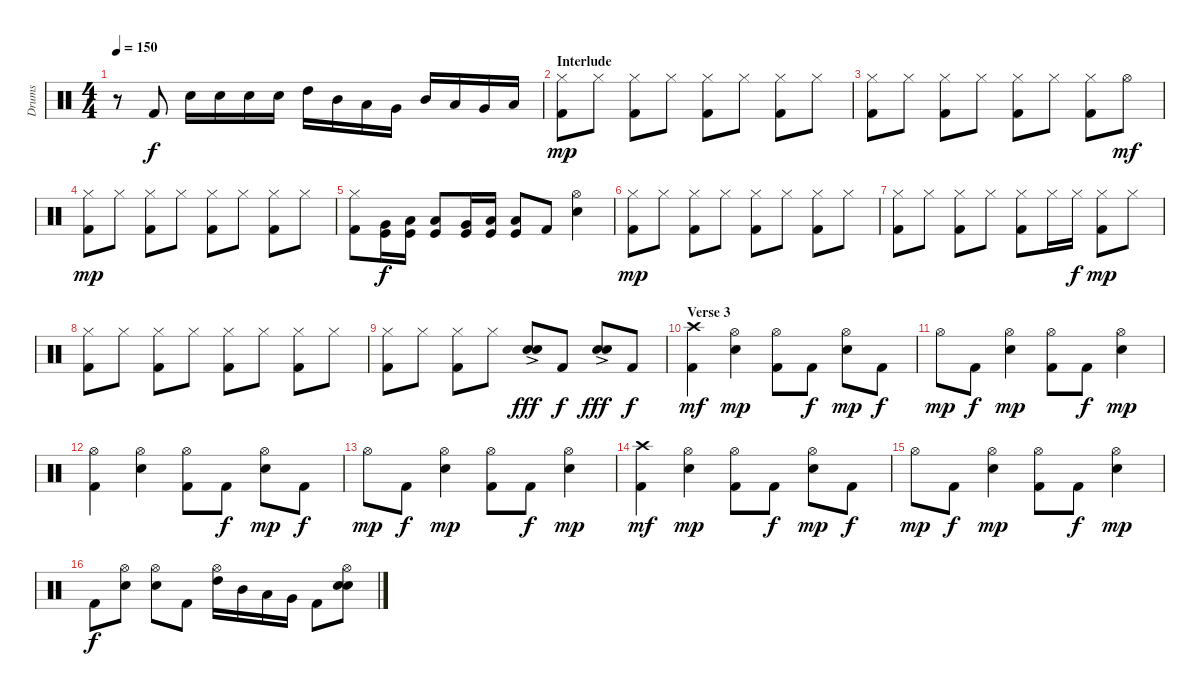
\track ("Drums" "Drums") {instrument percussion}
\staff {score}
\articulation defaults
\ts (4 4)
\tempo 150
\clef neutral
\ks c
r.8{dy f} "Kick (hit) 2".8 "Snare (hit) 2".16 "Snare (hit) 2".16 "Snare (hit) 2".16 "Snare (hit) 2".16 "High Tom (hit)".16 "Mid Tom (hit)".16 "Low Tom (hit)".16 "Very Low Tom (hit)".16 "Mid Tom (hit)".16 "Low Tom (hit)".16 "Very Low Tom (hit)".16 "Low Floor Tom (hit)".16 |
\section ("" "Interlude")
("Hi-Hat (closed)" "Kick (hit) 2").8{dy mp} "Hi-Hat (closed)".8 ("Hi-Hat (closed)" "Kick (hit) 2").8 "Hi-Hat (closed)".8 ("Hi-Hat (closed)" "Kick (hit) 2").8 "Hi-Hat (closed)".8 ("Hi-Hat (closed)" "Kick (hit) 2").8 "Hi-Hat (closed)".8 |
("Hi-Hat (closed)" "Kick (hit) 2").8 "Hi-Hat (closed)".8 ("Hi-Hat (closed)" "Kick (hit) 2").8 "Hi-Hat (closed)".8 ("Hi-Hat (closed)" "Kick (hit) 2").8 "Hi-Hat (closed)".8 ("Hi-Hat (closed)" "Kick (hit) 2").8 "Hi-Hat (open)".8{dy mf} |
("Hi-Hat (closed)" "Kick (hit) 2").8{dy mp} "Hi-Hat (closed)".8 ("Hi-Hat (closed)" "Kick (hit) 2").8 "Hi-Hat (closed)".8 ("Hi-Hat (closed)" "Kick (hit) 2").8 "Hi-Hat (closed)".8 ("Hi-Hat (closed)" "Kick (hit) 2").8 "Hi-Hat (closed)".8 |
("Hi-Hat (closed)" "Kick (hit) 2").8 ("Very Low Tom (hit)" "Kick (hit)").16{dy f} ("Low Floor Tom (hit)" "Kick (hit)").16 ("Low Floor Tom (hit)" "Kick (hit)").8 ("Very Low Tom (hit)" "Kick (hit)").16 ("Low Floor Tom (hit)" "Kick (hit)").16 ("Low Floor Tom (hit)" "Kick (hit)").8 "Kick (hit) 2".8 ("Hi-Hat (open)" "Snare (hit) 2").4 |
("Hi-Hat (closed)" "Kick (hit) 2").8{dy mp} "Hi-Hat (closed)".8 ("Hi-Hat (closed)" "Kick (hit) 2").8 "Hi-Hat (closed)".8 ("Hi-Hat (closed)" "Kick (hit) 2").8 "Hi-Hat (closed)".8 ("Hi-Hat (closed)" "Kick (hit) 2").8 "Hi-Hat (closed)".8 |
("Hi-Hat (closed)" "Kick (hit) 2").8 "Hi-Hat (closed)".8 ("Hi-Hat (closed)" "Kick (hit) 2").8 "Hi-Hat (closed)".8 ("Hi-Hat (closed)" "Kick (hit) 2").8 "Hi-Hat (closed)".16 "Hi-Hat (closed)".16{dy f} ("Hi-Hat (closed)" "Kick (hit) 2").8{dy mp} "Hi-Hat (closed)".8 |
("Hi-Hat (closed)" "Kick (hit) 2").8 "Hi-Hat (closed)".8 ("Hi-Hat (closed)" "Kick (hit) 2").8 "Hi-Hat (closed)".8 ("Hi-Hat (closed)" "Kick (hit) 2").8 "Hi-Hat (closed)".8 ("Hi-Hat (closed)" "Kick (hit) 2").8 "Hi-Hat (closed)".8 |
("Hi-Hat (closed)" "Kick (hit) 2").8 "Hi-Hat (closed)".8 ("Hi-Hat (closed)" "Kick (hit) 2").8 "Hi-Hat (closed)".8 ("Snare (hit) 2"{ac} "Snare (hit) 2"{ac}).8{dy fff} "Kick (hit) 2".8{dy f} ("Snare (hit) 2"{ac} "Snare (hit) 2"{ac}).8{dy fff} "Kick (hit) 2".8{dy f} |
\section ("" "Verse 3")
("Crash high (hit)" "Kick (hit) 2").4{dy mf} ("Hi-Hat (open)" "Snare (hit) 2").4{dy mp} ("Hi-Hat (open)" "Kick (hit) 2").8 "Kick (hit) 2".8{dy f} ("Hi-Hat (open)" "Snare (hit) 2").8{dy mp} "Kick (hit) 2".8{dy f} |
"Hi-Hat (open)".8{dy mp} "Kick (hit) 2".8{dy f} ("Hi-Hat (open)" "Snare (hit) 2").4{dy mp} ("Hi-Hat (open)" "Kick (hit) 2").8 "Kick (hit) 2".8{dy f} ("Hi-Hat (open)" "Snare (hit) 2").4{dy mp} |
("Hi-Hat (open)" "Kick (hit) 2").4 ("Hi-Hat (open)" "Snare (hit) 2").4 ("Hi-Hat (open)" "Kick (hit) 2").8 "Kick (hit) 2".8{dy f} ("Hi-Hat (open)" "Snare (hit) 2").8{dy mp} "Kick (hit) 2".8{dy f} |
"Hi-Hat (open)".8{dy mp} "Kick (hit) 2".8{dy f} ("Hi-Hat (open)" "Snare (hit) 2").4{dy mp} ("Hi-Hat (open)" "Kick (hit) 2").8 "Kick (hit) 2".8{dy f} ("Hi-Hat (open)" "Snare (hit) 2").4{dy mp} |
("Crash high (hit)" "Kick (hit) 2").4{dy mf} ("Hi-Hat (open)" "Snare (hit) 2").4{dy mp} ("Hi-Hat (open)" "Kick (hit) 2").8 "Kick (hit) 2".8{dy f} ("Hi-Hat (open)" "Snare (hit) 2").8{dy mp} "Kick (hit) 2".8{dy f} |
"Hi-Hat (open)".8{dy mp} "Kick (hit) 2".8{dy f} ("Hi-Hat (open)" "Snare (hit) 2").4{dy mp} ("Hi-Hat (open)" "Kick (hit) 2").8 "Kick (hit) 2".8{dy f} ("Hi-Hat (open)" "Snare (hit) 2").4{dy mp} |
"Kick (hit) 2".8{dy f} ("Hi-Hat (open)" "Snare (hit) 2").8 ("Hi-Hat (open)" "Snare (hit) 2").8 "Kick (hit) 2".8 ("Hi-Hat (open)" "High Tom (hit)").16 "Mid Tom (hit)".16 "Low Tom (hit)".16 "Very Low Tom (hit)".16 "Kick (hit) 2".8 ("Hi-Hat (open)" "Snare (hit) 2" "Snare (hit) 2").8
